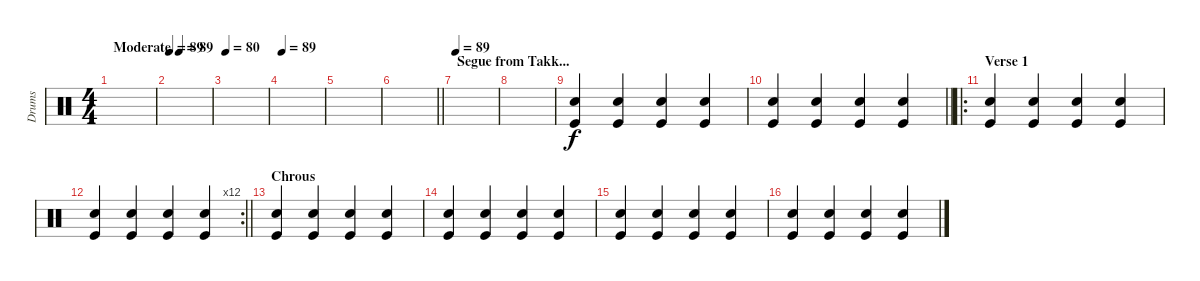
\track ("Drums" "Drums") {instrument percussion}
\staff {score}
\articulation defaults
\ts (4 4)
\tempo (89 "Moderate")
\tempo 81
\tempo (89 "Moderate")
\clef neutral
\ks c
|
\tempo 89
|
\tempo 80
|
\tempo 89
|
|
\barLineRight lightlight
|
\section ("" "Segue from Takk...")
\tempo 89
|
|
("Hand Clap (hit)" "Kick (hit)").4 ("Hand Clap (hit)" "Kick (hit)").4 ("Hand Clap (hit)" "Kick (hit)").4 ("Hand Clap (hit)" "Kick (hit)").4 |
\barLineRight lightlight
("Hand Clap (hit)" "Kick (hit)").4 ("Hand Clap (hit)" "Kick (hit)").4 ("Hand Clap (hit)" "Kick (hit)").4 ("Hand Clap (hit)" "Kick (hit)").4 |
\ro
\section ("" "Verse 1")
("Hand Clap (hit)" "Kick (hit)").4 ("Hand Clap (hit)" "Kick (hit)").4 ("Hand Clap (hit)" "Kick (hit)").4 ("Hand Clap (hit)" "Kick (hit)").4 |
\rc 12
\barLineRight lightlight
("Hand Clap (hit)" "Kick (hit)").4 ("Hand Clap (hit)" "Kick (hit)").4 ("Hand Clap (hit)" "Kick (hit)").4 ("Hand Clap (hit)" "Kick (hit)").4 |
\section ("" "Chrous")
("Hand Clap (hit)" "Kick (hit)").4 ("Hand Clap (hit)" "Kick (hit)").4 ("Hand Clap (hit)" "Kick (hit)").4 ("Hand Clap (hit)" "Kick (hit)").4 |
("Hand Clap (hit)" "Kick (hit)").4 ("Hand Clap (hit)" "Kick (hit)").4 ("Hand Clap (hit)" "Kick (hit)").4 ("Hand Clap (hit)" "Kick (hit)").4 |
("Hand Clap (hit)" "Kick (hit)").4 ("Hand Clap (hit)" "Kick (hit)").4 ("Hand Clap (hit)" "Kick (hit)").4 ("Hand Clap (hit)" "Kick (hit)").4 |
("Hand Clap (hit)" "Kick (hit)").4 ("Hand Clap (hit)" "Kick (hit)").4 ("Hand Clap (hit)" "Kick (hit)").4 ("Hand Clap (hit)" "Kick (hit)").4
